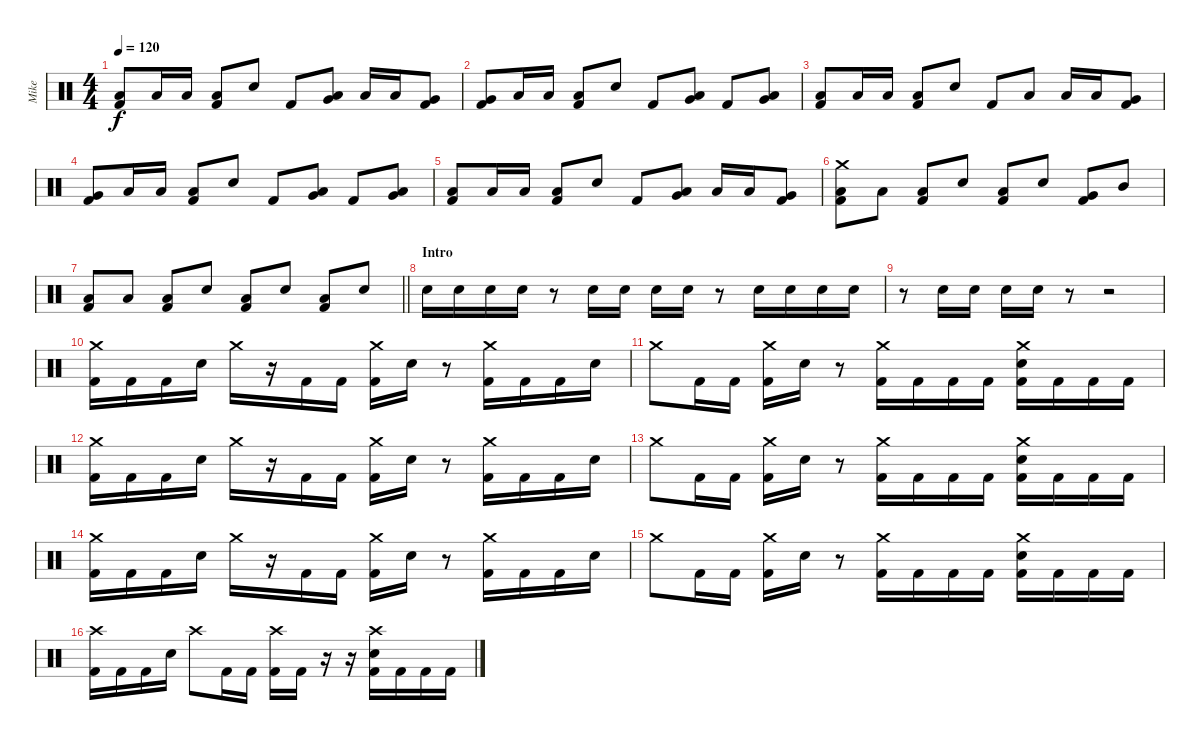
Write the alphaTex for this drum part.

\track ("Mike" "Mike") {instrument percussion}
\staff {score}
\articulation defaults
\ts (4 4)
\tempo 120
\clef neutral
\ks c
("Low Tom (hit)" "Kick (hit) 2").8{dy f} "Low Tom (hit)".16 "Low Tom (hit)".16 ("Low Tom (hit)" "Kick (hit) 2").8 "Snare (hit) 2".8 "Kick (hit) 2".8 ("Very Low Tom (hit)" "Low Tom (hit)").8 "Low Floor Tom (hit)".16 "Low Floor Tom (hit)".16 ("Very Low Tom (hit)" "Kick (hit) 2").8 |
("Very Low Tom (hit)" "Kick (hit) 2").8 "Low Tom (hit)".16 "Low Tom (hit)".16 ("Low Tom (hit)" "Kick (hit) 2").8 "Snare (hit) 2".8 "Kick (hit) 2".8 ("Low Floor Tom (hit)" "Very Low Tom (hit)").8 "Kick (hit) 2".8 ("Low Floor Tom (hit)" "Very Low Tom (hit)").8 |
("Low Tom (hit)" "Kick (hit) 2").8 "Low Tom (hit)".16 "Low Tom (hit)".16 ("Low Tom (hit)" "Kick (hit) 2").8 "Snare (hit) 2".8 "Kick (hit) 2".8 "Low Tom (hit)".8 "Low Floor Tom (hit)".16 "Low Floor Tom (hit)".16 ("Very Low Tom (hit)" "Kick (hit) 2").8 |
("Very Low Tom (hit)" "Kick (hit) 2").8 "Low Tom (hit)".16 "Low Tom (hit)".16 ("Low Tom (hit)" "Kick (hit) 2").8 "Snare (hit) 2".8 "Kick (hit) 2".8 ("Low Floor Tom (hit)" "Very Low Tom (hit)").8 "Kick (hit) 2".8 ("Low Floor Tom (hit)" "Very Low Tom (hit)").8 |
("Low Tom (hit)" "Kick (hit) 2").8 "Low Tom (hit)".16 "Low Tom (hit)".16 ("Low Tom (hit)" "Kick (hit) 2").8 "Snare (hit) 2".8 "Kick (hit) 2".8 ("Very Low Tom (hit)" "Low Tom (hit)").8 "Low Floor Tom (hit)".16 "Low Floor Tom (hit)".16 ("Very Low Tom (hit)" "Kick (hit) 2").8 |
("Crash medium (hit)" "Low Floor Tom (hit)" "Kick (hit) 2").8 "Low Floor Tom (hit)".8 ("Low Floor Tom (hit)" "Kick (hit) 2").8 "Snare (hit) 2".8 ("Low Floor Tom (hit)" "Kick (hit) 2").8 "Snare (hit) 2".8 ("Very Low Tom (hit)" "Kick (hit) 2").8 "Mid Tom (hit)".8 |
\barLineRight lightlight
("Low Floor Tom (hit)" "Kick (hit) 2").8 "Low Floor Tom (hit)".8 ("Low Floor Tom (hit)" "Kick (hit) 2").8 "Snare (hit) 2".8 ("Low Floor Tom (hit)" "Kick (hit) 2").8 "Snare (hit) 2".8 ("Low Floor Tom (hit)" "Kick (hit) 2").8 "Snare (hit) 2".8 |
\section ("" "Intro")
"Snare (hit) 2".16 "Snare (hit) 2".16 "Snare (hit) 2".16 "Snare (hit) 2".16 r.8 "Snare (hit) 2".16 "Snare (hit) 2".16 "Snare (hit) 2".16 "Snare (hit) 2".16 r.8 "Snare (hit) 2".16 "Snare (hit) 2".16 "Snare (hit) 2".16 "Snare (hit) 2".16 |
r.8 "Snare (hit) 2".16 "Snare (hit) 2".16 "Snare (hit) 2".16 "Snare (hit) 2".16 r.8 r.2 |
("Crash medium (hit)" "Kick (hit) 2").16 "Kick (hit) 2".16 "Kick (hit) 2".16 "Snare (hit) 2".16 "Crash medium (hit)".16 r.16 "Kick (hit) 2".16 "Kick (hit) 2".16 ("Crash medium (hit)" "Kick (hit) 2").16 "Snare (hit) 2".16 r.8 ("Crash medium (hit)" "Kick (hit) 2").16 "Kick (hit) 2".16 "Kick (hit) 2".16 "Snare (hit) 2".16 |
"Crash medium (hit)".8 "Kick (hit) 2".16 "Kick (hit) 2".16 ("Crash medium (hit)" "Kick (hit) 2").16 "Snare (hit) 2".16 r.8 ("Crash medium (hit)" "Kick (hit) 2").16 "Kick (hit) 2".16 "Kick (hit) 2".16 "Kick (hit) 2".16 ("Crash medium (hit)" "Snare (hit) 2" "Kick (hit) 2").16 "Kick (hit) 2".16 "Kick (hit) 2".16 "Kick (hit) 2".16 |
("Crash medium (hit)" "Kick (hit) 2").16 "Kick (hit) 2".16 "Kick (hit) 2".16 "Snare (hit) 2".16 "Crash medium (hit)".16 r.16 "Kick (hit) 2".16 "Kick (hit) 2".16 ("Crash medium (hit)" "Kick (hit) 2").16 "Snare (hit) 2".16 r.8 ("Crash medium (hit)" "Kick (hit) 2").16 "Kick (hit) 2".16 "Kick (hit) 2".16 "Snare (hit) 2".16 |
"Crash medium (hit)".8 "Kick (hit) 2".16 "Kick (hit) 2".16 ("Crash medium (hit)" "Kick (hit) 2").16 "Snare (hit) 2".16 r.8 ("Crash medium (hit)" "Kick (hit) 2").16 "Kick (hit) 2".16 "Kick (hit) 2".16 "Kick (hit) 2".16 ("Crash medium (hit)" "Snare (hit) 2" "Kick (hit) 2").16 "Kick (hit) 2".16 "Kick (hit) 2".16 "Kick (hit) 2".16 |
("Crash medium (hit)" "Kick (hit) 2").16 "Kick (hit) 2".16 "Kick (hit) 2".16 "Snare (hit) 2".16 "Crash medium (hit)".16 r.16 "Kick (hit) 2".16 "Kick (hit) 2".16 ("Crash medium (hit)" "Kick (hit) 2").16 "Snare (hit) 2".16 r.8 ("Crash medium (hit)" "Kick (hit) 2").16 "Kick (hit) 2".16 "Kick (hit) 2".16 "Snare (hit) 2".16 |
"Crash medium (hit)".8 "Kick (hit) 2".16 "Kick (hit) 2".16 ("Crash medium (hit)" "Kick (hit) 2").16 "Snare (hit) 2".16 r.8 ("Crash medium (hit)" "Kick (hit) 2").16 "Kick (hit) 2".16 "Kick (hit) 2".16 "Kick (hit) 2".16 ("Crash medium (hit)" "Snare (hit) 2" "Kick (hit) 2").16 "Kick (hit) 2".16 "Kick (hit) 2".16 "Kick (hit) 2".16 |
("Crash high (hit)" "Kick (hit) 2").16 "Kick (hit) 2".16 "Kick (hit) 2".16 "Snare (hit) 2".16 "Crash high (hit)".8 "Kick (hit) 2".16 "Kick (hit) 2".16 ("Crash high (hit)" "Kick (hit) 2").16 "Kick (hit) 2".16 r.16 r.16 ("Crash high (hit)" "Snare (hit) 2" "Kick (hit) 2").16 "Kick (hit) 2".16 "Kick (hit) 2".16 "Kick (hit) 2".16
